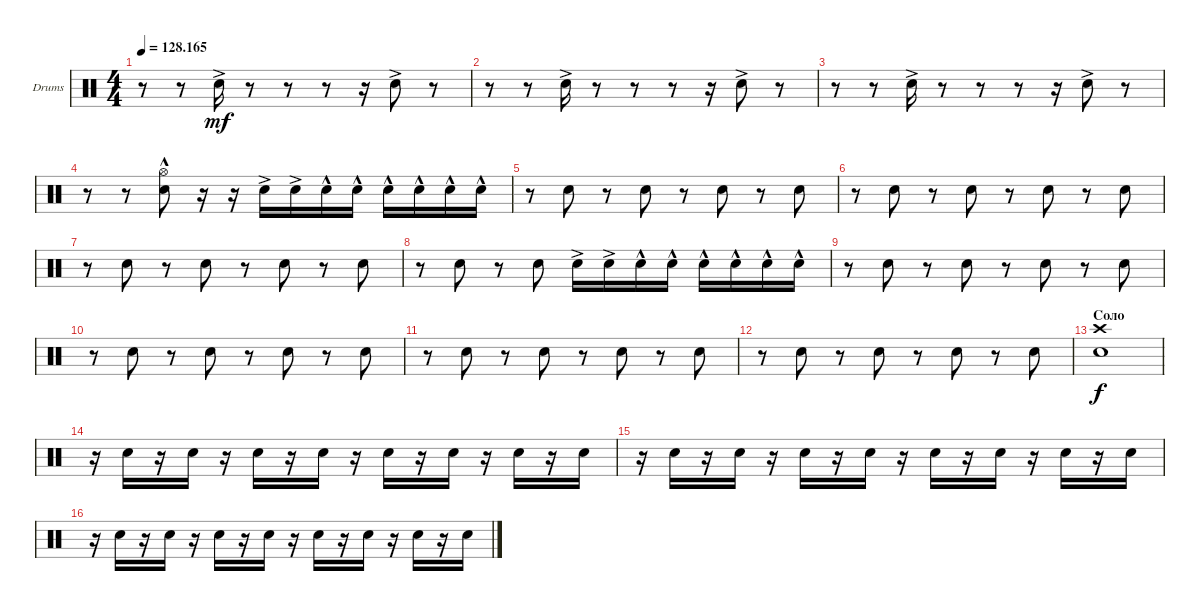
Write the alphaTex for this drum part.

\defaultSystemsLayout 4
\bracketExtendMode groupsimilarinstruments
\firstSystemTrackNameOrientation horizontal
\otherSystemsTrackNameOrientation horizontal
\track ("Drumkit" "Drums") {instrument percussion}
\staff {score}
\articulation defaults
\ts (4 4)
\tempo
128.165
\accidentals auto
\clef neutral
\ottava regular
\simile none
\ks c
r.8{dy mf} r.8 "Snare (hit) 2"{ac}.16 r.8 r.8 r.8 r.16 "Snare (hit) 2"{ac}.8 r.8 |
r.8 r.8 "Snare (hit) 2"{ac}.16 r.8 r.8 r.8 r.16 "Snare (hit) 2"{ac}.8 r.8 |
r.8 r.8 "Snare (hit) 2"{ac}.16 r.8 r.8 r.8 r.16 "Snare (hit) 2"{ac}.8 r.8 |
r.8 r.8 ("Snare (hit) 2" "Hi-Hat (open)"{hac}).8 r.16 r.16 "Snare (hit) 2"{ac}.16 "Snare (hit) 2"{ac}.16 "Snare (hit) 2"{hac}.16 "Snare (hit) 2"{hac}.16 "Snare (hit) 2"{hac}.16 "Snare (hit) 2"{hac}.16 "Snare (hit) 2"{hac}.16 "Snare (hit) 2"{hac}.16 |
r.8 "Snare (hit) 2".8 r.8 "Snare (hit) 2".8 r.8 "Snare (hit) 2".8 r.8 "Snare (hit) 2".8 |
r.8 "Snare (hit) 2".8 r.8 "Snare (hit) 2".8 r.8 "Snare (hit) 2".8 r.8 "Snare (hit) 2".8 |
r.8 "Snare (hit) 2".8 r.8 "Snare (hit) 2".8 r.8 "Snare (hit) 2".8 r.8 "Snare (hit) 2".8 |
r.8 "Snare (hit) 2".8 r.8 "Snare (hit) 2".8 "Snare (hit) 2"{ac}.16 "Snare (hit) 2"{ac}.16 "Snare (hit) 2"{hac}.16 "Snare (hit) 2"{hac}.16 "Snare (hit) 2"{hac}.16 "Snare (hit) 2"{hac}.16 "Snare (hit) 2"{hac}.16 "Snare (hit) 2"{hac}.16 |
r.8 "Snare (hit) 2".8 r.8 "Snare (hit) 2".8 r.8 "Snare (hit) 2".8 r.8 "Snare (hit) 2".8 |
r.8 "Snare (hit) 2".8 r.8 "Snare (hit) 2".8 r.8 "Snare (hit) 2".8 r.8 "Snare (hit) 2".8 |
r.8 "Snare (hit) 2".8 r.8 "Snare (hit) 2".8 r.8 "Snare (hit) 2".8 r.8 "Snare (hit) 2".8 |
r.8 "Snare (hit) 2".8 r.8 "Snare (hit) 2".8 r.8 "Snare (hit) 2".8 r.8 "Snare (hit) 2".8 |
\section ("" "Соло")
("Snare (hit) 2" "Crash high (hit)").1{dy f} |
r.16 "Snare (hit) 2".16 r.16 "Snare (hit) 2".16 r.16 "Snare (hit) 2".16 r.16 "Snare (hit) 2".16 r.16 "Snare (hit) 2".16 r.16 "Snare (hit) 2".16 r.16 "Snare (hit) 2".16 r.16 "Snare (hit) 2".16 |
r.16 "Snare (hit) 2".16 r.16 "Snare (hit) 2".16 r.16 "Snare (hit) 2".16 r.16 "Snare (hit) 2".16 r.16 "Snare (hit) 2".16 r.16 "Snare (hit) 2".16 r.16 "Snare (hit) 2".16 r.16 "Snare (hit) 2".16 |
r.16 "Snare (hit) 2".16 r.16 "Snare (hit) 2".16 r.16 "Snare (hit) 2".16 r.16 "Snare (hit) 2".16 r.16 "Snare (hit) 2".16 r.16 "Snare (hit) 2".16 r.16 "Snare (hit) 2".16 r.16 "Snare (hit) 2".16
